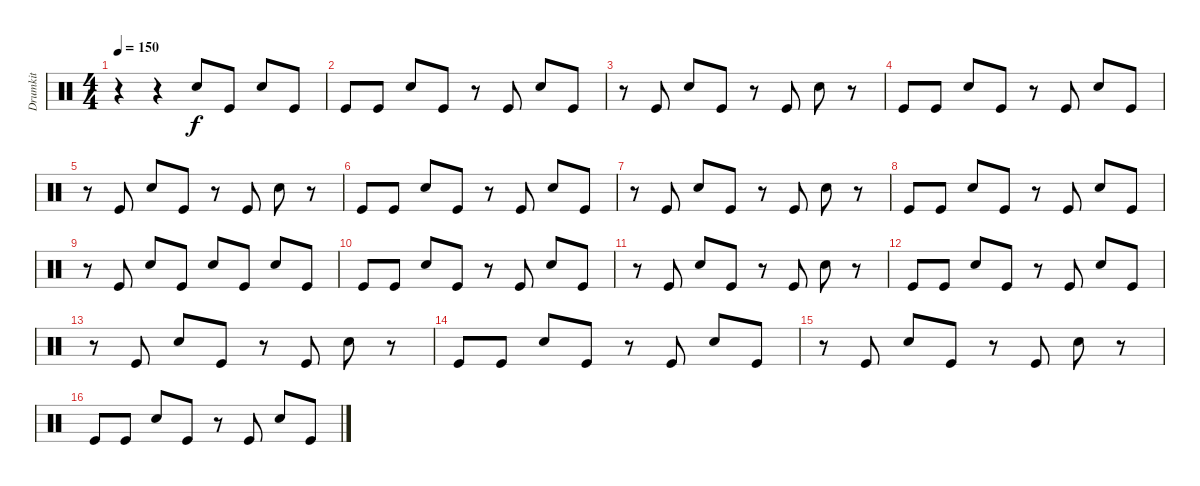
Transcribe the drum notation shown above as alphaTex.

\track ("Drumkit" "Drumkit") {instrument percussion}
\staff {score}
\articulation defaults
\ts (4 4)
\tempo 150
\clef neutral
\ks c
r.4{dy f} r.4 "Snare (hit) 2".8 "Kick (hit)".8 "Snare (hit) 2".8 "Kick (hit)".8 |
"Kick (hit)".8 "Kick (hit)".8 "Snare (hit) 2".8 "Kick (hit)".8 r.8 "Kick (hit)".8 "Snare (hit) 2".8 "Kick (hit)".8 |
r.8 "Kick (hit)".8 "Snare (hit) 2".8 "Kick (hit)".8 r.8 "Kick (hit)".8 "Snare (hit) 2".8 r.8 |
"Kick (hit)".8 "Kick (hit)".8 "Snare (hit) 2".8 "Kick (hit)".8 r.8 "Kick (hit)".8 "Snare (hit) 2".8 "Kick (hit)".8 |
r.8 "Kick (hit)".8 "Snare (hit) 2".8 "Kick (hit)".8 r.8 "Kick (hit)".8 "Snare (hit) 2".8 r.8 |
"Kick (hit)".8 "Kick (hit)".8 "Snare (hit) 2".8 "Kick (hit)".8 r.8 "Kick (hit)".8 "Snare (hit) 2".8 "Kick (hit)".8 |
r.8 "Kick (hit)".8 "Snare (hit) 2".8 "Kick (hit)".8 r.8 "Kick (hit)".8 "Snare (hit) 2".8 r.8 |
"Kick (hit)".8 "Kick (hit)".8 "Snare (hit) 2".8 "Kick (hit)".8 r.8 "Kick (hit)".8 "Snare (hit) 2".8 "Kick (hit)".8 |
r.8 "Kick (hit)".8 "Snare (hit) 2".8 "Kick (hit)".8 "Snare (hit) 2".8 "Kick (hit)".8 "Snare (hit) 2".8 "Kick (hit)".8 |
"Kick (hit)".8 "Kick (hit)".8 "Snare (hit) 2".8 "Kick (hit)".8 r.8 "Kick (hit)".8 "Snare (hit) 2".8 "Kick (hit)".8 |
r.8 "Kick (hit)".8 "Snare (hit) 2".8 "Kick (hit)".8 r.8 "Kick (hit)".8 "Snare (hit) 2".8 r.8 |
"Kick (hit)".8 "Kick (hit)".8 "Snare (hit) 2".8 "Kick (hit)".8 r.8 "Kick (hit)".8 "Snare (hit) 2".8 "Kick (hit)".8 |
r.8 "Kick (hit)".8 "Snare (hit) 2".8 "Kick (hit)".8 r.8 "Kick (hit)".8 "Snare (hit) 2".8 r.8 |
"Kick (hit)".8 "Kick (hit)".8 "Snare (hit) 2".8 "Kick (hit)".8 r.8 "Kick (hit)".8 "Snare (hit) 2".8 "Kick (hit)".8 |
r.8 "Kick (hit)".8 "Snare (hit) 2".8 "Kick (hit)".8 r.8 "Kick (hit)".8 "Snare (hit) 2".8 r.8 |
"Kick (hit)".8 "Kick (hit)".8 "Snare (hit) 2".8 "Kick (hit)".8 r.8 "Kick (hit)".8 "Snare (hit) 2".8 "Kick (hit)".8
